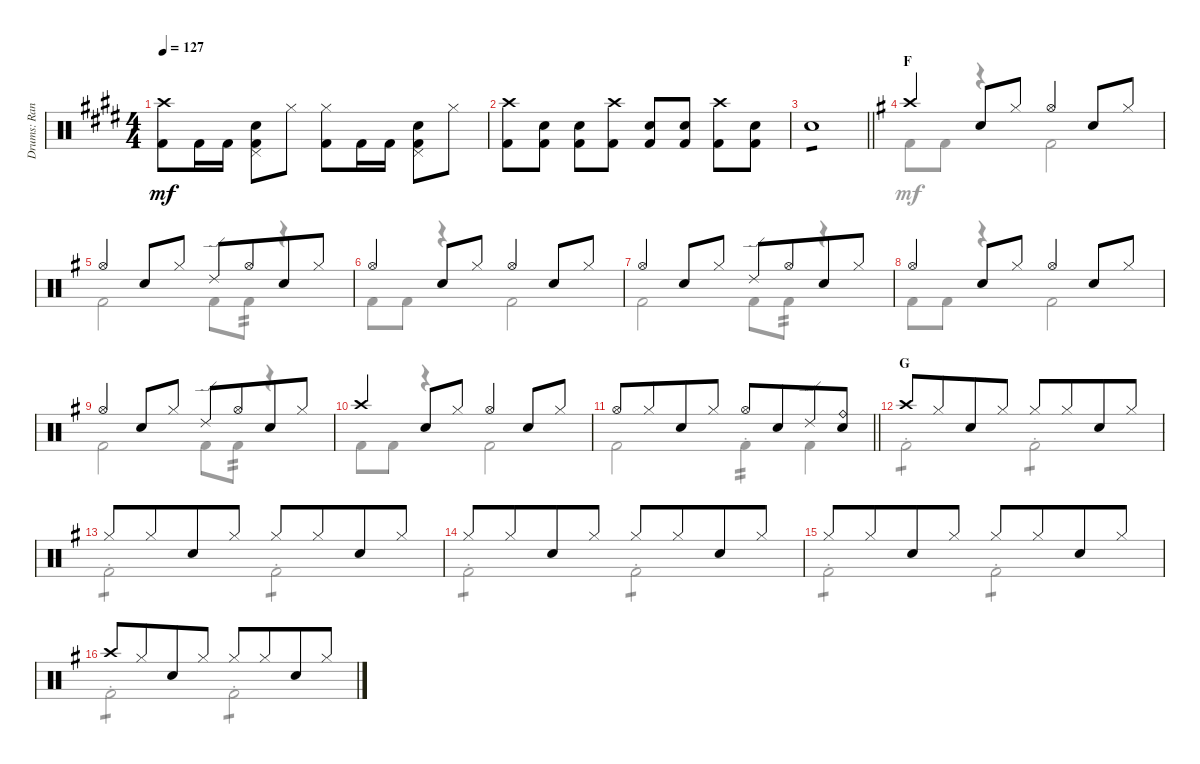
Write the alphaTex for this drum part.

\track ("Drums: Randy" "Drums: Ran") {instrument percussion}
\staff {score}
\articulation defaults
\voice
\ts (4 4)
\tempo 127
\clef neutral
\ks e
("Crash high (hit)" "Kick (hit) 2").8{dy mf} "Kick (hit) 2".16 "Kick (hit) 2".16 ("Pedal Hi-Hat (hit)" "Snare (hit) 2" "Kick (hit) 2").8 "Hi-Hat (closed)".8 ("Hi-Hat (closed)" "Kick (hit) 2").8 "Kick (hit) 2".16 "Kick (hit) 2".16 ("Pedal Hi-Hat (hit)" "Snare (hit) 2" "Kick (hit) 2").8 "Hi-Hat (closed)".8 |
("Crash high (hit)" "Kick (hit) 2").8 ("Snare (hit) 2" "Kick (hit) 2").8 ("Snare (hit) 2" "Kick (hit) 2").8 ("Crash high (hit)" "Kick (hit) 2").8 ("Snare (hit) 2" "Kick (hit) 2").8 ("Snare (hit) 2" "Kick (hit) 2").8 ("Crash high (hit)" "Kick (hit) 2").8 ("Snare (hit) 2" "Kick (hit) 2").8 |
\barLineRight lightlight "Snare (hit) 2".1{tp 1}
|
\section ("" "F")
\ks g "Crash high (hit)".4 "Snare (hit) 2".8 "Hi-Hat (closed)".8 "Hi-Hat (open)".4 "Snare (hit) 2".8 "Hi-Hat (closed)".8
|
"Hi-Hat (open)".4 "Snare (hit) 2".8 "Hi-Hat (closed)".8 "Ride (edge) 2".8 "Hi-Hat (open)".8{beam merge} "Snare (hit) 2".8 "Hi-Hat (closed)".8 |
"Hi-Hat (open)".4 "Snare (hit) 2".8 "Hi-Hat (closed)".8 "Hi-Hat (open)".4 "Snare (hit) 2".8 "Hi-Hat (closed)".8 |
"Hi-Hat (open)".4 "Snare (hit) 2".8 "Hi-Hat (closed)".8 "Ride (edge) 2".8 "Hi-Hat (open)".8{beam merge} "Snare (hit) 2".8 "Hi-Hat (closed)".8 |
"Hi-Hat (open)".4 "Snare (hit) 2".8 "Hi-Hat (closed)".8 "Hi-Hat (open)".4 "Snare (hit) 2".8 "Hi-Hat (closed)".8 |
"Hi-Hat (open)".4 "Snare (hit) 2".8 "Hi-Hat (closed)".8 "Ride (edge) 2".8 "Hi-Hat (open)".8{beam merge} "Snare (hit) 2".8 "Hi-Hat (closed)".8 |
"Crash high (hit)".4 "Snare (hit) 2".8 "Hi-Hat (closed)".8 "Hi-Hat (open)".4 "Snare (hit) 2".8 "Hi-Hat (closed)".8 |
\barLineRight lightlight "Hi-Hat (open)".8 "Hi-Hat (closed)".8{beam merge} "Snare (hit) 2".8 "Hi-Hat (closed)".8 "Hi-Hat (open)".8 "Snare (hit) 2".8{beam merge} "Ride (edge) 2".8
("Ride (bell)" "Snare (hit) 2").8 |
\section ("" "G")
"Crash high (hit)".8 "Hi-Hat (closed)".8{beam merge} "Snare (hit) 2".8 "Hi-Hat (closed)".8 "Hi-Hat (closed)".8 "Hi-Hat (closed)".8{beam merge} "Snare (hit) 2".8 "Hi-Hat (closed)".8 |
"Hi-Hat (closed)".8 "Hi-Hat (closed)".8{beam merge} "Snare (hit) 2".8 "Hi-Hat (closed)".8 "Hi-Hat (closed)".8 "Hi-Hat (closed)".8{beam merge} "Snare (hit) 2".8 "Hi-Hat (closed)".8 |
"Hi-Hat (closed)".8 "Hi-Hat (closed)".8{beam merge} "Snare (hit) 2".8 "Hi-Hat (closed)".8 "Hi-Hat (closed)".8 "Hi-Hat (closed)".8{beam merge} "Snare (hit) 2".8 "Hi-Hat (closed)".8 |
"Hi-Hat (closed)".8 "Hi-Hat (closed)".8{beam merge} "Snare (hit) 2".8 "Hi-Hat (closed)".8 "Hi-Hat (closed)".8 "Hi-Hat (closed)".8{beam merge} "Snare (hit) 2".8 "Hi-Hat (closed)".8 |
"Crash high (hit)".8 "Hi-Hat (closed)".8{beam merge} "Snare (hit) 2".8 "Hi-Hat (closed)".8 "Hi-Hat (closed)".8 "Hi-Hat (closed)".8{beam merge} "Snare (hit) 2".8 "Hi-Hat (closed)".8
\voice
\clef neutral
\ottava regular
\simile none
\ks e
|
|
\barLineRight lightlight
|
\ks g "Kick (hit) 2".8 "Kick (hit) 2".8
r.4 "Kick (hit) 2".2 |
"Kick (hit) 2".2 "Kick (hit) 2".8 "Kick (hit) 2".8{tp 2} r.4 |
"Kick (hit) 2".8 "Kick (hit) 2".8 r.4 "Kick (hit) 2".2 |
"Kick (hit) 2".2 "Kick (hit) 2".8 "Kick (hit) 2".8{tp 2} r.4 |
"Kick (hit) 2".8 "Kick (hit) 2".8 r.4 "Kick (hit) 2".2 |
"Kick (hit) 2".2 "Kick (hit) 2".8 "Kick (hit) 2".8{tp 2} r.4 |
"Kick (hit) 2".8 "Kick (hit) 2".8 r.4 "Kick (hit) 2".2 |
\barLineRight lightlight "Kick (hit) 2".2 "Kick (hit) 2"{st}.4{tp 2} "Kick (hit) 2".4
|
"Kick (hit) 2"{st}.2{tp 1} "Kick (hit) 2"{st}.2{tp 1} |
"Kick (hit) 2"{st}.2{tp 1} "Kick (hit) 2"{st}.2{tp 1} |
"Kick (hit) 2"{st}.2{tp 1} "Kick (hit) 2"{st}.2{tp 1} |
"Kick (hit) 2"{st}.2{tp 1} "Kick (hit) 2"{st}.2{tp 1} |
"Kick (hit) 2"{st}.2{tp 1} "Kick (hit) 2"{st}.2{tp 1}
